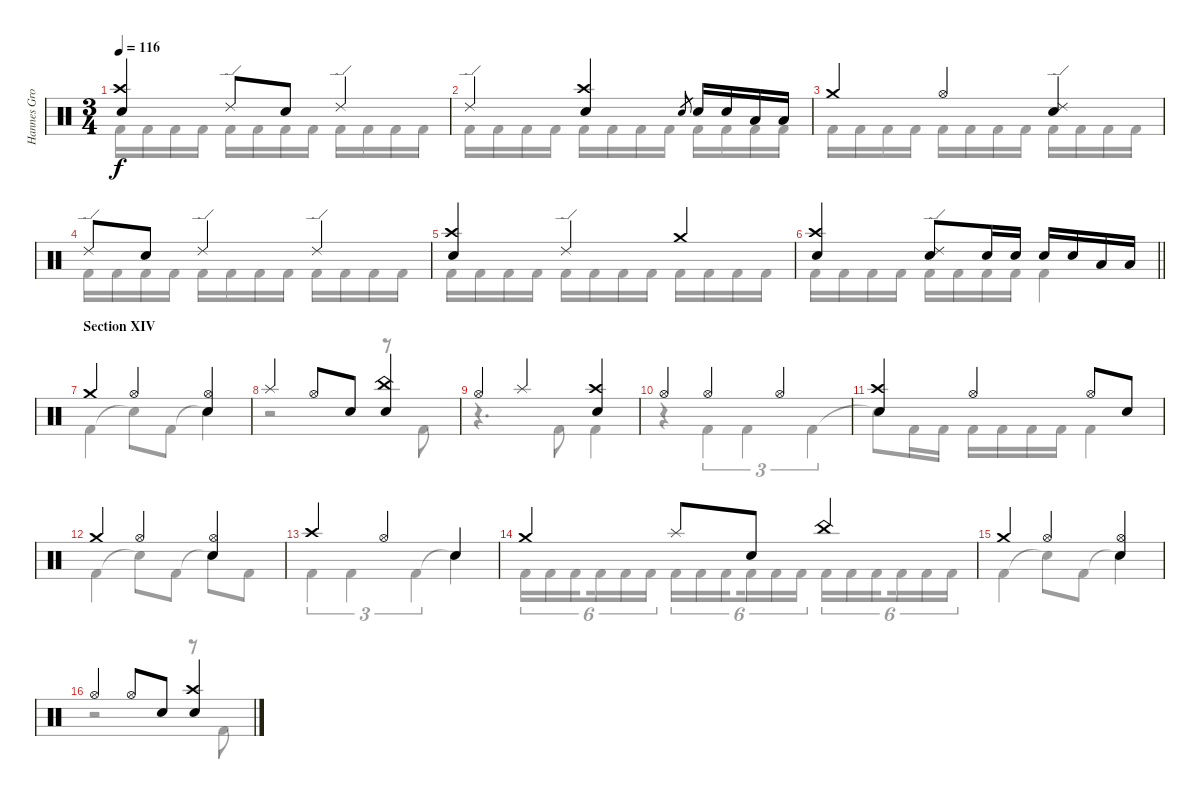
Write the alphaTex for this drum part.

\track ("Hannes Grossman" "Hannes Gro") {instrument percussion}
\staff {score}
\articulation defaults
\voice
\ts (3 4)
\tempo 116
\clef neutral
\ks c
("Crash high (hit)" "Electric Snare (hit)").4{dy f} "Ride (edge) 2".8 "Electric Snare (hit)".8 "Ride (edge) 2".4 |
"Ride (edge) 2".4 ("Crash high (hit)" "Electric Snare (hit)").4 "Electric Snare (hit)".8{gr} "Electric Snare (hit)".16 "Electric Snare (hit)".16 "Low Tom (hit)".16 "Low Tom (hit)".16 |
"Crash medium (hit)".4 "Hi-Hat (open)".4 ("Ride (edge) 2" "Electric Snare (hit)").4 |
"Ride (edge) 2".8 "Electric Snare (hit)".8 "Ride (edge) 2".4 "Ride (edge) 2".4 |
("Crash high (hit)" "Electric Snare (hit)").4 "Ride (edge) 2".4 "Crash medium (hit)".4 |
\barLineRight lightlight
("Electric Snare (hit)" "Crash high (hit)").4 ("Electric Snare (hit)" "Ride (edge) 2").8 "Electric Snare (hit)".16 "Electric Snare (hit)".16 "Electric Snare (hit)".16 "Electric Snare (hit)".16 "Low Tom (hit)".16 "Low Tom (hit)".16 |
\section ("" "Section XIV")
"Crash medium (hit)".4 "Hi-Hat (open)".4 ("Electric Snare (hit)" "Hi-Hat (open)").4 |
"Splash (hit)".4 "Hi-Hat (open)".8 "Electric Snare (hit)".8 ("Electric Snare (hit)" "China (hit)").4 |
"Hi-Hat (open)".4 "Splash (hit)".4 ("Crash high (hit)" "Electric Snare (hit)").4 |
"Hi-Hat (open)".4 "Hi-Hat (open)".4 "Hi-Hat (open)".4 |
("Electric Snare (hit)" "Crash high (hit)").4 "Hi-Hat (open)".4 "Hi-Hat (open)".8 "Electric Snare (hit)".8 |
"Crash medium (hit)".4 "Hi-Hat (open)".4 ("Hi-Hat (open)" "Electric Snare (hit)").4 |
"Crash high (hit)".4 "Hi-Hat (open)".4 "Electric Snare (hit)".4 |
"Crash medium (hit)".4 "Splash (hit)".8 "Electric Snare (hit)".8 "China (hit)".4 |
"Crash medium (hit)".4 "Hi-Hat (open)".4 ("Hi-Hat (open)" "Electric Snare (hit)").4 |
"Hi-Hat (open)".4 "Hi-Hat (open)".8 "Electric Snare (hit)".8 ("Crash high (hit)" "Electric Snare (hit)").4
\voice
\clef neutral
\ottava regular
\simile none
\ks c "Kick (hit) 2".16{dy f} "Kick (hit) 2".16 "Kick (hit) 2".16 "Kick (hit) 2".16 "Kick (hit) 2".16 "Kick (hit) 2".16 "Kick (hit) 2".16 "Kick (hit) 2".16 "Kick (hit) 2".16 "Kick (hit) 2".16 "Kick (hit) 2".16 "Kick (hit) 2".16
|
"Kick (hit) 2".16 "Kick (hit) 2".16 "Kick (hit) 2".16 "Kick (hit) 2".16 "Kick (hit) 2".16 "Kick (hit) 2".16 "Kick (hit) 2".16 "Kick (hit) 2".16 "Kick (hit) 2".16 "Kick (hit) 2".16 "Kick (hit) 2".16 "Kick (hit) 2".16 |
"Kick (hit) 2".16 "Kick (hit) 2".16 "Kick (hit) 2".16 "Kick (hit) 2".16 "Kick (hit) 2".16 "Kick (hit) 2".16 "Kick (hit) 2".16 "Kick (hit) 2".16 "Kick (hit) 2".16 "Kick (hit) 2".16 "Kick (hit) 2".16 "Kick (hit) 2".16 |
"Kick (hit) 2".16 "Kick (hit) 2".16 "Kick (hit) 2".16 "Kick (hit) 2".16 "Kick (hit) 2".16 "Kick (hit) 2".16 "Kick (hit) 2".16 "Kick (hit) 2".16 "Kick (hit) 2".16 "Kick (hit) 2".16 "Kick (hit) 2".16 "Kick (hit) 2".16 |
"Kick (hit) 2".16 "Kick (hit) 2".16 "Kick (hit) 2".16 "Kick (hit) 2".16 "Kick (hit) 2".16 "Kick (hit) 2".16 "Kick (hit) 2".16 "Kick (hit) 2".16 "Kick (hit) 2".16 "Kick (hit) 2".16 "Kick (hit) 2".16 "Kick (hit) 2".16 |
\barLineRight lightlight "Kick (hit) 2".16 "Kick (hit) 2".16 "Kick (hit) 2".16 "Kick (hit) 2".16 "Kick (hit) 2".16 "Kick (hit) 2".16 "Kick (hit) 2".16 "Kick (hit) 2".16 "Kick (hit) 2".4
|
"Kick (hit) 2".4 "Snare (hit)"{t}.8 "Kick (hit) 2".8 "Snare (hit)"{t}.4 |
r.2 r.8 "Kick (hit) 2".8 |
r.4{d} "Kick (hit) 2".8 "Kick (hit) 2".4 |
r.4 "Kick (hit) 2".4{tu (3 2)} "Kick (hit) 2".4{tu (3 2)} "Kick (hit) 2".4{tu (3 2)} |
"Snare (hit)"{t}.8 "Kick (hit) 2".16 "Kick (hit) 2".16 "Kick (hit) 2".16 "Kick (hit) 2".16 "Kick (hit) 2".16 "Kick (hit) 2".16 "Kick (hit) 2".4 |
"Kick (hit) 2".4 "Snare (hit)"{t}.8 "Kick (hit) 2".8 "Snare (hit)"{t}.8 "Kick (hit) 2".8 |
"Kick (hit) 2".4{tu (3 2)} "Kick (hit) 2".4{tu (3 2)} "Kick (hit) 2".4{tu (3 2)} "Snare (hit)"{t}.4 |
"Kick (hit) 2".16{tu (6 4)} "Kick (hit) 2".16{tu (6 4)} "Kick (hit) 2".16{tu (6 4) beam splitsecondary} "Kick (hit) 2".16{tu (6 4)} "Kick (hit) 2".16{tu (6 4)} "Kick (hit) 2".16{tu (6 4)} "Kick (hit) 2".16{tu (6 4)} "Kick (hit) 2".16{tu (6 4)} "Kick (hit) 2".16{tu (6 4) beam splitsecondary} "Kick (hit) 2".16{tu (6 4)} "Kick (hit) 2".16{tu (6 4)} "Kick (hit) 2".16{tu (6 4)} "Kick (hit) 2".16{tu (6 4)} "Kick (hit) 2".16{tu (6 4)} "Kick (hit) 2".16{tu (6 4) beam splitsecondary} "Kick (hit) 2".16{tu (6 4)} "Kick (hit) 2".16{tu (6 4)} "Kick (hit) 2".16{tu (6 4)} |
"Kick (hit) 2".4 "Snare (hit)"{t}.8 "Kick (hit) 2".8 "Snare (hit)"{t}.4 |
r.2 r.8 "Kick (hit) 2".8
